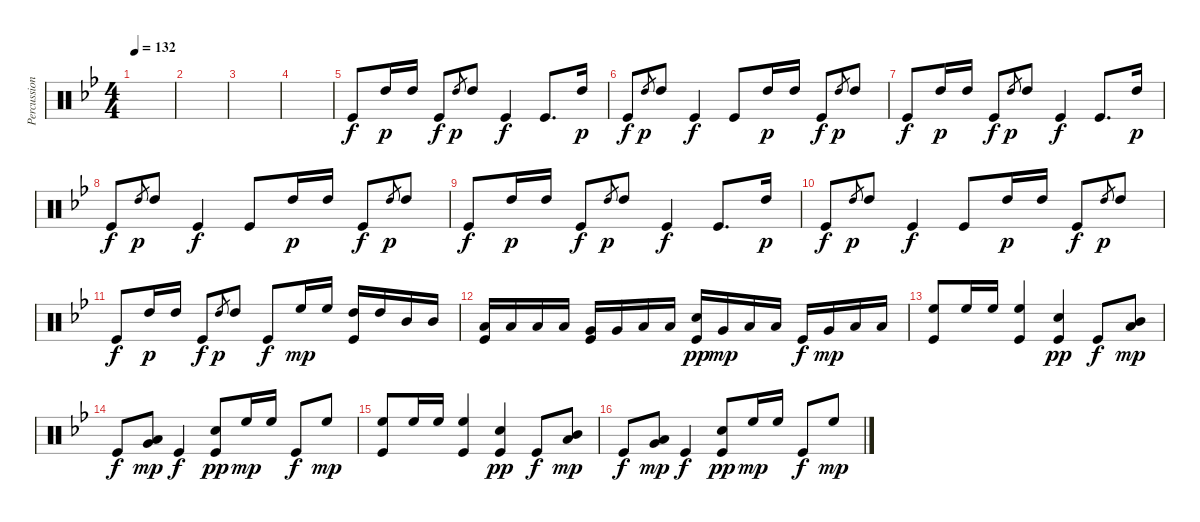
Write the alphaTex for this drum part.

\track ("Percussion" "Percussion") {instrument percussion}
\staff {score}
\articulation defaults
\ts (4 4)
\tempo 132
\clef neutral
\ks bb
|
|
|
|
"Kick (hit)".8 "High Tom (hit)".16{dy p} "High Tom (hit)".16 "Kick (hit)".8{dy f} "High Tom (hit)".8{gr dy p} "High Tom (hit)".8 "Kick (hit)".4{dy f} "Kick (hit)".8{d} "High Tom (hit)".16{dy p} |
"Kick (hit)".8{dy f} "High Tom (hit)".8{gr dy p} "High Tom (hit)".8 "Kick (hit)".4{dy f} "Kick (hit)".8 "High Tom (hit)".16{dy p} "High Tom (hit)".16 "Kick (hit)".8{dy f} "High Tom (hit)".8{gr dy p} "High Tom (hit)".8 |
"Kick (hit)".8{dy f} "High Tom (hit)".16{dy p} "High Tom (hit)".16 "Kick (hit)".8{dy f} "High Tom (hit)".8{gr dy p} "High Tom (hit)".8 "Kick (hit)".4{dy f} "Kick (hit)".8{d} "High Tom (hit)".16{dy p} |
"Kick (hit)".8{dy f} "High Tom (hit)".8{gr dy p} "High Tom (hit)".8 "Kick (hit)".4{dy f} "Kick (hit)".8 "High Tom (hit)".16{dy p} "High Tom (hit)".16 "Kick (hit)".8{dy f} "High Tom (hit)".8{gr dy p} "High Tom (hit)".8 |
"Kick (hit)".8{dy f} "High Tom (hit)".16{dy p} "High Tom (hit)".16 "Kick (hit)".8{dy f} "High Tom (hit)".8{gr dy p} "High Tom (hit)".8 "Kick (hit)".4{dy f} "Kick (hit)".8{d} "High Tom (hit)".16{dy p} |
"Kick (hit)".8{dy f} "High Tom (hit)".8{gr dy p} "High Tom (hit)".8 "Kick (hit)".4{dy f} "Kick (hit)".8 "High Tom (hit)".16{dy p} "High Tom (hit)".16 "Kick (hit)".8{dy f} "High Tom (hit)".8{gr dy p} "High Tom (hit)".8 |
"Kick (hit)".8{dy f} "High Tom (hit)".16{dy p} "High Tom (hit)".16 "Kick (hit)".8{dy f} "High Tom (hit)".8{gr dy p} "High Tom (hit)".8 "Kick (hit)".8{dy f} "High Floor Tom (hit)".16{dy mp} "High Floor Tom (hit)".16 ("Kick (hit)" "High Tom (hit)").16 "High Tom (hit)".16 "Mid Tom (hit)".16 "Mid Tom (hit)".16 |
("Kick (hit)" "Low Tom (hit)").16 "Low Tom (hit)".16 "Low Tom (hit)".16 "Low Tom (hit)".16 ("Kick (hit)" "Very Low Tom (hit)").16 "Very Low Tom (hit)".16 "Low Floor Tom (hit)".16 "Low Floor Tom (hit)".16 ("Kick (hit)" "Snare (hit) 2").16{dy pp} "Very Low Tom (hit)".16{dy mp} "Low Floor Tom (hit)".16 "Low Floor Tom (hit)".16 "Kick (hit)".16{dy f} "Very Low Tom (hit)".16{dy mp} "Low Floor Tom (hit)".16 "Low Floor Tom (hit)".16 |
("Kick (hit)" "High Floor Tom (hit)").8 "High Floor Tom (hit)".16 "High Floor Tom (hit)".16 ("Kick (hit)" "High Floor Tom (hit)").4 ("Kick (hit)" "Snare (hit) 2").4{dy pp} "Kick (hit)".8{dy f} ("Mid Tom (hit)" "Low Tom (hit)").8{dy mp} |
"Kick (hit)".8{dy f} ("Very Low Tom (hit)" "Low Floor Tom (hit)").8{dy mp} "Kick (hit)".4{dy f} ("Kick (hit)" "Snare (hit) 2").8{dy pp} "High Floor Tom (hit)".16{dy mp} "High Floor Tom (hit)".16 "Kick (hit)".8{dy f} "High Floor Tom (hit)".8{dy mp} |
("Kick (hit)" "High Floor Tom (hit)").8 "High Floor Tom (hit)".16 "High Floor Tom (hit)".16 ("Kick (hit)" "High Floor Tom (hit)").4 ("Kick (hit)" "Snare (hit) 2").4{dy pp} "Kick (hit)".8{dy f} ("Mid Tom (hit)" "Low Tom (hit)").8{dy mp} |
"Kick (hit)".8{dy f} ("Very Low Tom (hit)" "Low Floor Tom (hit)").8{dy mp} "Kick (hit)".4{dy f} ("Kick (hit)" "Snare (hit) 2").8{dy pp} "High Floor Tom (hit)".16{dy mp} "High Floor Tom (hit)".16 "Kick (hit)".8{dy f} "High Floor Tom (hit)".8{dy mp}
